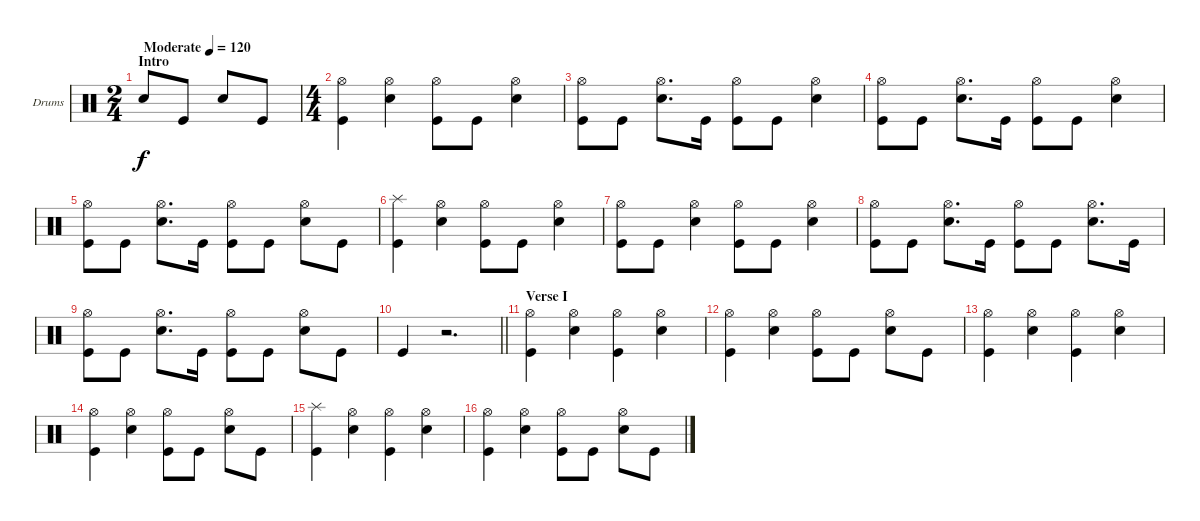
\bracketExtendMode groupsimilarinstruments
\firstSystemTrackNameOrientation horizontal
\otherSystemsTrackNameOrientation horizontal
\track ("Drumkit" "Drums") {instrument percussion}
\staff {score}
\articulation defaults
\ts (2 4)
\beaming (8 2 2)
\section ("" "Intro")
\tempo (120 "Moderate")
\clef neutral
\ks c "Snare (hit) 2".8{dy f} "Kick (hit)".8 "Snare (hit) 2".8 "Kick (hit)".8
|
\ts (4 4)
\beaming (8 2 2 2 2)
("Kick (hit)" "Hi-Hat (open)").4 ("Snare (hit) 2" "Hi-Hat (open)").4 ("Kick (hit)" "Hi-Hat (open)").8 "Kick (hit)".8 ("Snare (hit) 2" "Hi-Hat (open)").4 |
("Kick (hit)" "Hi-Hat (open)").8 "Kick (hit)".8 ("Snare (hit) 2" "Hi-Hat (open)").8{d} "Kick (hit)".16 ("Kick (hit)" "Hi-Hat (open)").8 "Kick (hit)".8 ("Snare (hit) 2" "Hi-Hat (open)").4 |
("Kick (hit)" "Hi-Hat (open)").8 "Kick (hit)".8 ("Snare (hit) 2" "Hi-Hat (open)").8{d} "Kick (hit)".16 ("Kick (hit)" "Hi-Hat (open)").8 "Kick (hit)".8 ("Snare (hit) 2" "Hi-Hat (open)").4 |
("Kick (hit)" "Hi-Hat (open)").8 "Kick (hit)".8 ("Snare (hit) 2" "Hi-Hat (open)").8{d} "Kick (hit)".16 ("Kick (hit)" "Hi-Hat (open)").8 "Kick (hit)".8 ("Snare (hit) 2" "Hi-Hat (open)").8 "Kick (hit)".8 |
("Kick (hit)" "Splash (hit)").4 ("Snare (hit) 2" "Hi-Hat (open)").4 ("Kick (hit)" "Hi-Hat (open)").8 "Kick (hit)".8 ("Snare (hit) 2" "Hi-Hat (open)").4 |
("Kick (hit)" "Hi-Hat (open)").8 "Kick (hit)".8 ("Snare (hit) 2" "Hi-Hat (open)").4 ("Kick (hit)" "Hi-Hat (open)").8 "Kick (hit)".8 ("Snare (hit) 2" "Hi-Hat (open)").4 |
("Kick (hit)" "Hi-Hat (open)").8 "Kick (hit)".8 ("Snare (hit) 2" "Hi-Hat (open)").8{d} "Kick (hit)".16 ("Kick (hit)" "Hi-Hat (open)").8 "Kick (hit)".8 ("Snare (hit) 2" "Hi-Hat (open)").8{d} "Kick (hit)".16 |
("Kick (hit)" "Hi-Hat (open)").8 "Kick (hit)".8 ("Snare (hit) 2" "Hi-Hat (open)").8{d} "Kick (hit)".16 ("Kick (hit)" "Hi-Hat (open)").8 "Kick (hit)".8 ("Snare (hit) 2" "Hi-Hat (open)").8 "Kick (hit)".8 |
\barLineRight lightlight "Kick (hit)".4
r.2{d} |
\section ("" "Verse I")
("Kick (hit)" "Hi-Hat (open)").4 ("Snare (hit) 2" "Hi-Hat (open)").4 ("Kick (hit)" "Hi-Hat (open)").4 ("Snare (hit) 2" "Hi-Hat (open)").4 |
("Kick (hit)" "Hi-Hat (open)").4 ("Snare (hit) 2" "Hi-Hat (open)").4 ("Kick (hit)" "Hi-Hat (open)").8 "Kick (hit)".8 ("Snare (hit) 2" "Hi-Hat (open)").8 "Kick (hit)".8 |
("Kick (hit)" "Hi-Hat (open)").4 ("Snare (hit) 2" "Hi-Hat (open)").4 ("Kick (hit)" "Hi-Hat (open)").4 ("Snare (hit) 2" "Hi-Hat (open)").4 |
("Kick (hit)" "Hi-Hat (open)").4 ("Snare (hit) 2" "Hi-Hat (open)").4 ("Kick (hit)" "Hi-Hat (open)").8 "Kick (hit)".8 ("Snare (hit) 2" "Hi-Hat (open)").8 "Kick (hit)".8 |
("Kick (hit)" "Splash (hit)").4 ("Snare (hit) 2" "Hi-Hat (open)").4 ("Kick (hit)" "Hi-Hat (open)").4 ("Snare (hit) 2" "Hi-Hat (open)").4 |
("Kick (hit)" "Hi-Hat (open)").4 ("Snare (hit) 2" "Hi-Hat (open)").4 ("Kick (hit)" "Hi-Hat (open)").8 "Kick (hit)".8 ("Snare (hit) 2" "Hi-Hat (open)").8 "Kick (hit)".8
